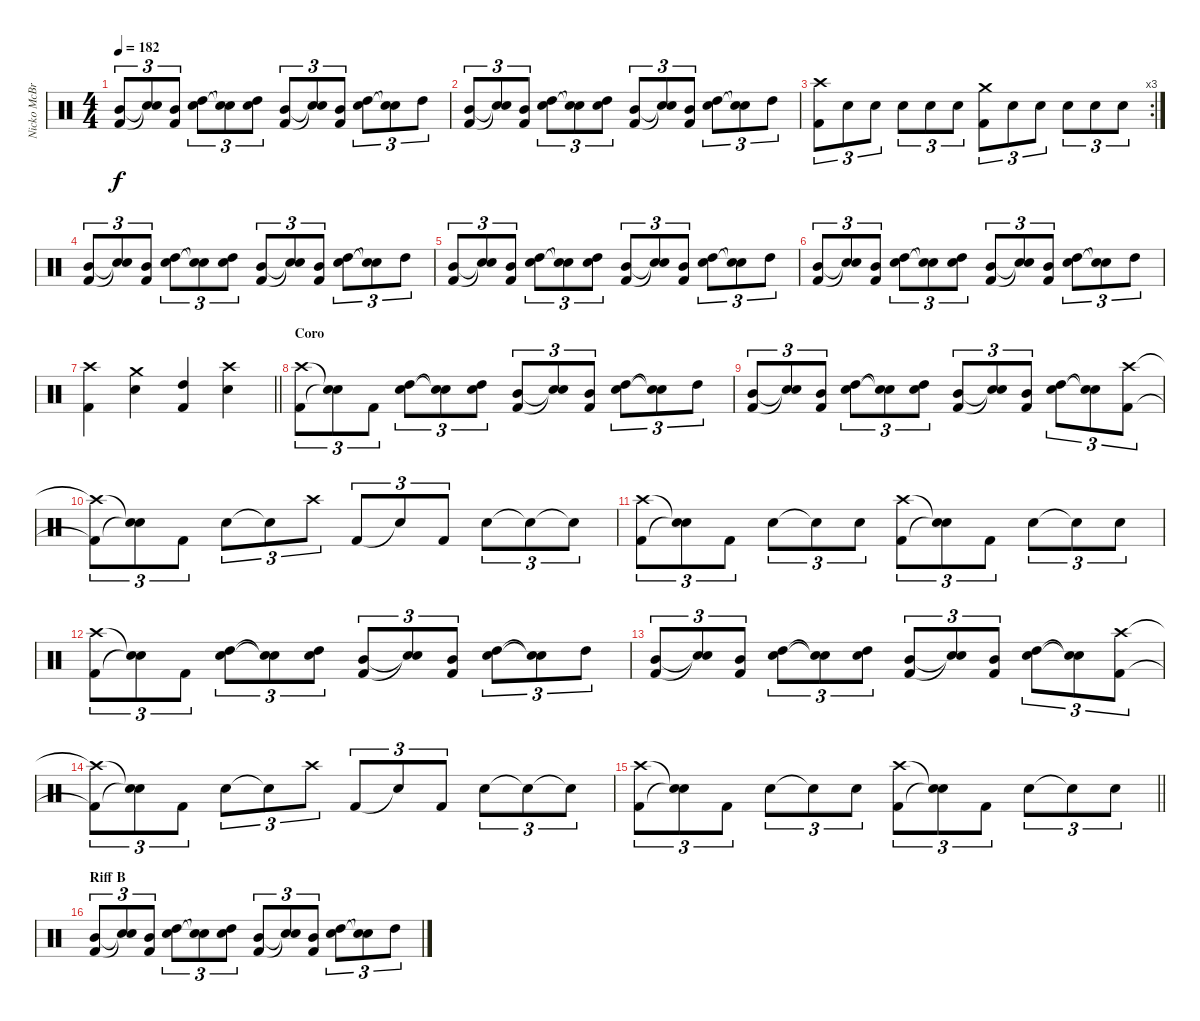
\track ("Nicko McBrain" "Nicko McBr") {instrument percussion}
\staff {score}
\articulation defaults
\ts (4 4)
\tempo 182
\clef neutral
\ks c
("Mid Tom (hit)" "Kick (hit) 2").8{tu (3 2) dy f} ("Snare (hit)"{t} "Snare (hit)"{t}).8{tu (3 2)} ("Mid Tom (hit)" "Kick (hit) 2").8{tu (3 2)} ("High Tom (hit)" "Snare (hit) 2").8{tu (3 2)} ("Snare (hit)"{t} "Snare (hit)"{t}).8{tu (3 2)} ("High Tom (hit)" "Snare (hit) 2").8{tu (3 2)} ("Mid Tom (hit)" "Kick (hit) 2").8{tu (3 2)} ("Snare (hit)"{t} "Snare (hit)"{t}).8{tu (3 2)} ("Mid Tom (hit)" "Kick (hit) 2").8{tu (3 2)} ("High Tom (hit)" "Snare (hit) 2").8{tu (3 2)} ("Snare (hit)"{t} "Snare (hit)"{t}).8{tu (3 2)} "High Tom (hit)".8{tu (3 2)} |
("Mid Tom (hit)" "Kick (hit) 2").8{tu (3 2)} ("Snare (hit)"{t} "Snare (hit)"{t}).8{tu (3 2)} ("Mid Tom (hit)" "Kick (hit) 2").8{tu (3 2)} ("High Tom (hit)" "Snare (hit) 2").8{tu (3 2)} ("Snare (hit)"{t} "Snare (hit)"{t}).8{tu (3 2)} ("High Tom (hit)" "Snare (hit) 2").8{tu (3 2)} ("Mid Tom (hit)" "Kick (hit) 2").8{tu (3 2)} ("Snare (hit)"{t} "Snare (hit)"{t}).8{tu (3 2)} ("Mid Tom (hit)" "Kick (hit) 2").8{tu (3 2)} ("High Tom (hit)" "Snare (hit) 2").8{tu (3 2)} ("Snare (hit)"{t} "Snare (hit)"{t}).8{tu (3 2)} "High Tom (hit)".8{tu (3 2)} |
\rc 3
("Kick (hit) 2" "Crash high (hit)").8{tu (3 2)} "Snare (hit) 2".8{tu (3 2)} "Snare (hit) 2".8{tu (3 2)} "Snare (hit) 2".8{tu (3 2)} "Snare (hit) 2".8{tu (3 2)} "Snare (hit) 2".8{tu (3 2)} ("Kick (hit) 2" "Crash medium (hit)").8{tu (3 2)} "Snare (hit) 2".8{tu (3 2)} "Snare (hit) 2".8{tu (3 2)} "Snare (hit) 2".8{tu (3 2)} "Snare (hit) 2".8{tu (3 2)} "Snare (hit) 2".8{tu (3 2)} |
("Mid Tom (hit)" "Kick (hit) 2").8{tu (3 2)} ("Snare (hit)"{t} "Snare (hit)"{t}).8{tu (3 2)} ("Mid Tom (hit)" "Kick (hit) 2").8{tu (3 2)} ("High Tom (hit)" "Snare (hit) 2").8{tu (3 2)} ("Snare (hit)"{t} "Snare (hit)"{t}).8{tu (3 2)} ("High Tom (hit)" "Snare (hit) 2").8{tu (3 2)} ("Mid Tom (hit)" "Kick (hit) 2").8{tu (3 2)} ("Snare (hit)"{t} "Snare (hit)"{t}).8{tu (3 2)} ("Mid Tom (hit)" "Kick (hit) 2").8{tu (3 2)} ("High Tom (hit)" "Snare (hit) 2").8{tu (3 2)} ("Snare (hit)"{t} "Snare (hit)"{t}).8{tu (3 2)} "High Tom (hit)".8{tu (3 2)} |
("Mid Tom (hit)" "Kick (hit) 2").8{tu (3 2)} ("Snare (hit)"{t} "Snare (hit)"{t}).8{tu (3 2)} ("Mid Tom (hit)" "Kick (hit) 2").8{tu (3 2)} ("High Tom (hit)" "Snare (hit) 2").8{tu (3 2)} ("Snare (hit)"{t} "Snare (hit)"{t}).8{tu (3 2)} ("High Tom (hit)" "Snare (hit) 2").8{tu (3 2)} ("Mid Tom (hit)" "Kick (hit) 2").8{tu (3 2)} ("Snare (hit)"{t} "Snare (hit)"{t}).8{tu (3 2)} ("Mid Tom (hit)" "Kick (hit) 2").8{tu (3 2)} ("High Tom (hit)" "Snare (hit) 2").8{tu (3 2)} ("Snare (hit)"{t} "Snare (hit)"{t}).8{tu (3 2)} "High Tom (hit)".8{tu (3 2)} |
("Mid Tom (hit)" "Kick (hit) 2").8{tu (3 2)} ("Snare (hit)"{t} "Snare (hit)"{t}).8{tu (3 2)} ("Mid Tom (hit)" "Kick (hit) 2").8{tu (3 2)} ("High Tom (hit)" "Snare (hit) 2").8{tu (3 2)} ("Snare (hit)"{t} "Snare (hit)"{t}).8{tu (3 2)} ("High Tom (hit)" "Snare (hit) 2").8{tu (3 2)} ("Mid Tom (hit)" "Kick (hit) 2").8{tu (3 2)} ("Snare (hit)"{t} "Snare (hit)"{t}).8{tu (3 2)} ("Mid Tom (hit)" "Kick (hit) 2").8{tu (3 2)} ("High Tom (hit)" "Snare (hit) 2").8{tu (3 2)} ("Snare (hit)"{t} "Snare (hit)"{t}).8{tu (3 2)} "High Tom (hit)".8{tu (3 2)} |
\barLineRight lightlight
("Kick (hit) 2" "Crash high (hit)").4 ("Snare (hit) 2" "Crash medium (hit)").4 ("High Tom (hit)" "Kick (hit) 2").4 ("Snare (hit) 2" "Crash high (hit)").4 |
\section ("" "Coro")
("Kick (hit) 2" "Crash high (hit)").8{tu (3 2)} ("Snare (hit)"{t} "Snare (hit)"{t}).8{tu (3 2)} "Kick (hit) 2".8{tu (3 2)} ("High Tom (hit)" "Snare (hit) 2").8{tu (3 2)} ("Snare (hit)"{t} "Snare (hit)"{t}).8{tu (3 2)} ("High Tom (hit)" "Snare (hit) 2").8{tu (3 2)} ("Mid Tom (hit)" "Kick (hit) 2").8{tu (3 2)} ("Snare (hit)"{t} "Snare (hit)"{t}).8{tu (3 2)} ("Mid Tom (hit)" "Kick (hit) 2").8{tu (3 2)} ("High Tom (hit)" "Snare (hit) 2").8{tu (3 2)} ("Snare (hit)"{t} "Snare (hit)"{t}).8{tu (3 2)} "High Tom (hit)".8{tu (3 2)} |
("Mid Tom (hit)" "Kick (hit) 2").8{tu (3 2)} ("Snare (hit)"{t} "Snare (hit)"{t}).8{tu (3 2)} ("Mid Tom (hit)" "Kick (hit) 2").8{tu (3 2)} ("High Tom (hit)" "Snare (hit) 2").8{tu (3 2)} ("Snare (hit)"{t} "Snare (hit)"{t}).8{tu (3 2)} ("High Tom (hit)" "Snare (hit) 2").8{tu (3 2)} ("Mid Tom (hit)" "Kick (hit) 2").8{tu (3 2)} ("Snare (hit)"{t} "Snare (hit)"{t}).8{tu (3 2)} ("Mid Tom (hit)" "Kick (hit) 2").8{tu (3 2)} ("High Tom (hit)" "Snare (hit) 2").8{tu (3 2)} ("Snare (hit)"{t} "Snare (hit)"{t}).8{tu (3 2)} ("Kick (hit) 2" "Crash high (hit)").8{tu (3 2)} |
("Kick (hit) 2"{t} "Crash high (hit)"{t}).8{tu (3 2)} ("Snare (hit)"{t} "Snare (hit)"{t}).8{tu (3 2)} "Kick (hit) 2".8{tu (3 2)} "Snare (hit) 2".8{tu (3 2)} "Snare (hit)"{t}.8{tu (3 2)} "Crash high (hit)".8{tu (3 2)} "Kick (hit) 2".8{tu (3 2)} "Snare (hit)"{t}.8{tu (3 2)} "Kick (hit) 2".8{tu (3 2)} "Snare (hit) 2".8{tu (3 2)} "Snare (hit)"{t}.8{tu (3 2)} "Snare (hit)"{t}.8{tu (3 2)} |
("Kick (hit) 2" "Crash high (hit)").8{tu (3 2)} ("Snare (hit)"{t} "Snare (hit)"{t}).8{tu (3 2)} "Kick (hit) 2".8{tu (3 2)} "Snare (hit) 2".8{tu (3 2)} "Snare (hit)"{t}.8{tu (3 2)} "Snare (hit) 2".8{tu (3 2)} ("Kick (hit) 2" "Crash high (hit)").8{tu (3 2)} ("Snare (hit)"{t} "Snare (hit)"{t}).8{tu (3 2)} "Kick (hit) 2".8{tu (3 2)} "Snare (hit) 2".8{tu (3 2)} "Snare (hit)"{t}.8{tu (3 2)} "Snare (hit) 2".8{tu (3 2)} |
("Kick (hit) 2" "Crash high (hit)").8{tu (3 2)} ("Snare (hit)"{t} "Snare (hit)"{t}).8{tu (3 2)} "Kick (hit) 2".8{tu (3 2)} ("High Tom (hit)" "Snare (hit) 2").8{tu (3 2)} ("Snare (hit)"{t} "Snare (hit)"{t}).8{tu (3 2)} ("High Tom (hit)" "Snare (hit) 2").8{tu (3 2)} ("Mid Tom (hit)" "Kick (hit) 2").8{tu (3 2)} ("Snare (hit)"{t} "Snare (hit)"{t}).8{tu (3 2)} ("Mid Tom (hit)" "Kick (hit) 2").8{tu (3 2)} ("High Tom (hit)" "Snare (hit) 2").8{tu (3 2)} ("Snare (hit)"{t} "Snare (hit)"{t}).8{tu (3 2)} "High Tom (hit)".8{tu (3 2)} |
("Mid Tom (hit)" "Kick (hit) 2").8{tu (3 2)} ("Snare (hit)"{t} "Snare (hit)"{t}).8{tu (3 2)} ("Mid Tom (hit)" "Kick (hit) 2").8{tu (3 2)} ("High Tom (hit)" "Snare (hit) 2").8{tu (3 2)} ("Snare (hit)"{t} "Snare (hit)"{t}).8{tu (3 2)} ("High Tom (hit)" "Snare (hit) 2").8{tu (3 2)} ("Mid Tom (hit)" "Kick (hit) 2").8{tu (3 2)} ("Snare (hit)"{t} "Snare (hit)"{t}).8{tu (3 2)} ("Mid Tom (hit)" "Kick (hit) 2").8{tu (3 2)} ("High Tom (hit)" "Snare (hit) 2").8{tu (3 2)} ("Snare (hit)"{t} "Snare (hit)"{t}).8{tu (3 2)} ("Kick (hit) 2" "Crash high (hit)").8{tu (3 2)} |
("Kick (hit) 2"{t} "Crash high (hit)"{t}).8{tu (3 2)} ("Snare (hit)"{t} "Snare (hit)"{t}).8{tu (3 2)} "Kick (hit) 2".8{tu (3 2)} "Snare (hit) 2".8{tu (3 2)} "Snare (hit)"{t}.8{tu (3 2)} "Crash high (hit)".8{tu (3 2)} "Kick (hit) 2".8{tu (3 2)} "Snare (hit)"{t}.8{tu (3 2)} "Kick (hit) 2".8{tu (3 2)} "Snare (hit) 2".8{tu (3 2)} "Snare (hit)"{t}.8{tu (3 2)} "Snare (hit)"{t}.8{tu (3 2)} |
\barLineRight lightlight
("Kick (hit) 2" "Crash high (hit)").8{tu (3 2)} ("Snare (hit)"{t} "Snare (hit)"{t}).8{tu (3 2)} "Kick (hit) 2".8{tu (3 2)} "Snare (hit) 2".8{tu (3 2)} "Snare (hit)"{t}.8{tu (3 2)} "Snare (hit) 2".8{tu (3 2)} ("Kick (hit) 2" "Crash high (hit)").8{tu (3 2)} ("Snare (hit)"{t} "Snare (hit)"{t}).8{tu (3 2)} "Kick (hit) 2".8{tu (3 2)} "Snare (hit) 2".8{tu (3 2)} "Snare (hit)"{t}.8{tu (3 2)} "Snare (hit) 2".8{tu (3 2)} |
\section ("" "Riff B")
("Mid Tom (hit)" "Kick (hit) 2").8{tu (3 2)} ("Snare (hit)"{t} "Snare (hit)"{t}).8{tu (3 2)} ("Mid Tom (hit)" "Kick (hit) 2").8{tu (3 2)} ("High Tom (hit)" "Snare (hit) 2").8{tu (3 2)} ("Snare (hit)"{t} "Snare (hit)"{t}).8{tu (3 2)} ("High Tom (hit)" "Snare (hit) 2").8{tu (3 2)} ("Mid Tom (hit)" "Kick (hit) 2").8{tu (3 2)} ("Snare (hit)"{t} "Snare (hit)"{t}).8{tu (3 2)} ("Mid Tom (hit)" "Kick (hit) 2").8{tu (3 2)} ("High Tom (hit)" "Snare (hit) 2").8{tu (3 2)} ("Snare (hit)"{t} "Snare (hit)"{t}).8{tu (3 2)} "High Tom (hit)".8{tu (3 2)}
